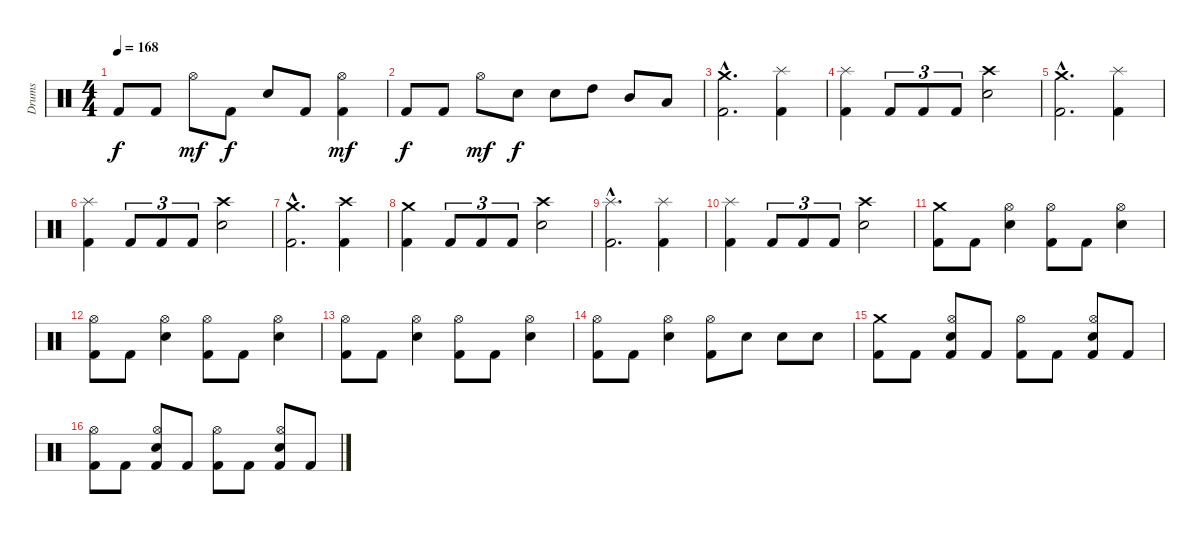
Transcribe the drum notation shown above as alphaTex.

\track ("Drums" "Drums") {instrument percussion}
\staff {score}
\articulation defaults
\ts (4 4)
\tempo 168
\clef neutral
\ks c "Kick (hit) 2".8{dy f} "Kick (hit) 2".8 "Hi-Hat (open)".8{dy mf} "Kick (hit) 2".8{dy f} "Electric Snare (hit)".8 "Kick (hit) 2".8
("Kick (hit) 2" "Hi-Hat (open)").4{dy mf} |
"Kick (hit) 2".8{dy f} "Kick (hit) 2".8 "Hi-Hat (open)".8{dy mf} "Electric Snare (hit)".8{dy f} "Electric Snare (hit)".8 "High Tom (hit)".8 "Mid Tom (hit)".8 "Low Tom (hit)".8 |
\section ("" "")
("Kick (hit) 2"{hac} "Crash medium (hit)"{hac}).2{d} ("Kick (hit) 2" "Splash (hit)").4 |
("Kick (hit) 2" "Splash (hit)").4 "Kick (hit) 2".8{tu (3 2)} "Kick (hit) 2".8{tu (3 2)} "Kick (hit) 2".8{tu (3 2)} ("Electric Snare (hit)" "Crash high (hit)").2 |
("Kick (hit) 2"{hac} "Crash medium (hit)"{hac}).2{d} ("Kick (hit) 2" "Splash (hit)").4 |
("Kick (hit) 2" "Splash (hit)").4 "Kick (hit) 2".8{tu (3 2)} "Kick (hit) 2".8{tu (3 2)} "Kick (hit) 2".8{tu (3 2)} ("Electric Snare (hit)" "Crash high (hit)").2 |
("Kick (hit) 2"{hac} "Crash medium (hit)"{hac}).2{d} ("Kick (hit) 2" "Crash high (hit)").4 |
("Kick (hit) 2" "Crash medium (hit)").4 "Kick (hit) 2".8{tu (3 2)} "Kick (hit) 2".8{tu (3 2)} "Kick (hit) 2".8{tu (3 2)} ("Electric Snare (hit)" "Crash high (hit)").2 |
("Kick (hit) 2"{hac} "Splash (hit)"{hac}).2{d} ("Kick (hit) 2" "Splash (hit)").4 |
("Kick (hit) 2" "Splash (hit)").4 "Kick (hit) 2".8{tu (3 2)} "Kick (hit) 2".8{tu (3 2)} "Kick (hit) 2".8{tu (3 2)} ("Electric Snare (hit)" "Crash high (hit)").2 |
\section ("" "")
("Kick (hit) 2" "Crash medium (hit)").8 "Kick (hit) 2".8 ("Electric Snare (hit)" "Hi-Hat (open)").4 ("Kick (hit) 2" "Hi-Hat (open)").8 "Kick (hit) 2".8 ("Electric Snare (hit)" "Hi-Hat (open)").4 |
("Kick (hit) 2" "Hi-Hat (open)").8 "Kick (hit) 2".8 ("Electric Snare (hit)" "Hi-Hat (open)").4 ("Kick (hit) 2" "Hi-Hat (open)").8 "Kick (hit) 2".8 ("Electric Snare (hit)" "Hi-Hat (open)").4 |
("Kick (hit) 2" "Hi-Hat (open)").8 "Kick (hit) 2".8 ("Electric Snare (hit)" "Hi-Hat (open)").4 ("Kick (hit) 2" "Hi-Hat (open)").8 "Kick (hit) 2".8 ("Electric Snare (hit)" "Hi-Hat (open)").4 |
("Kick (hit) 2" "Hi-Hat (open)").8 "Kick (hit) 2".8 ("Electric Snare (hit)" "Hi-Hat (open)").4 ("Kick (hit) 2" "Hi-Hat (open)").8 "Electric Snare (hit)".8 "Electric Snare (hit)".8 "Electric Snare (hit)".8 |
("Kick (hit) 2" "Crash medium (hit)").8 "Kick (hit) 2".8 ("Kick (hit) 2" "Electric Snare (hit)" "Hi-Hat (open)").8 "Kick (hit) 2".8 ("Kick (hit) 2" "Hi-Hat (open)").8 "Kick (hit) 2".8 ("Kick (hit) 2" "Electric Snare (hit)" "Hi-Hat (open)").8 "Kick (hit) 2".8 |
("Kick (hit) 2" "Hi-Hat (open)").8 "Kick (hit) 2".8 ("Kick (hit) 2" "Electric Snare (hit)" "Hi-Hat (open)").8 "Kick (hit) 2".8 ("Kick (hit) 2" "Hi-Hat (open)").8 "Kick (hit) 2".8 ("Kick (hit) 2" "Electric Snare (hit)" "Hi-Hat (open)").8 "Kick (hit) 2".8
